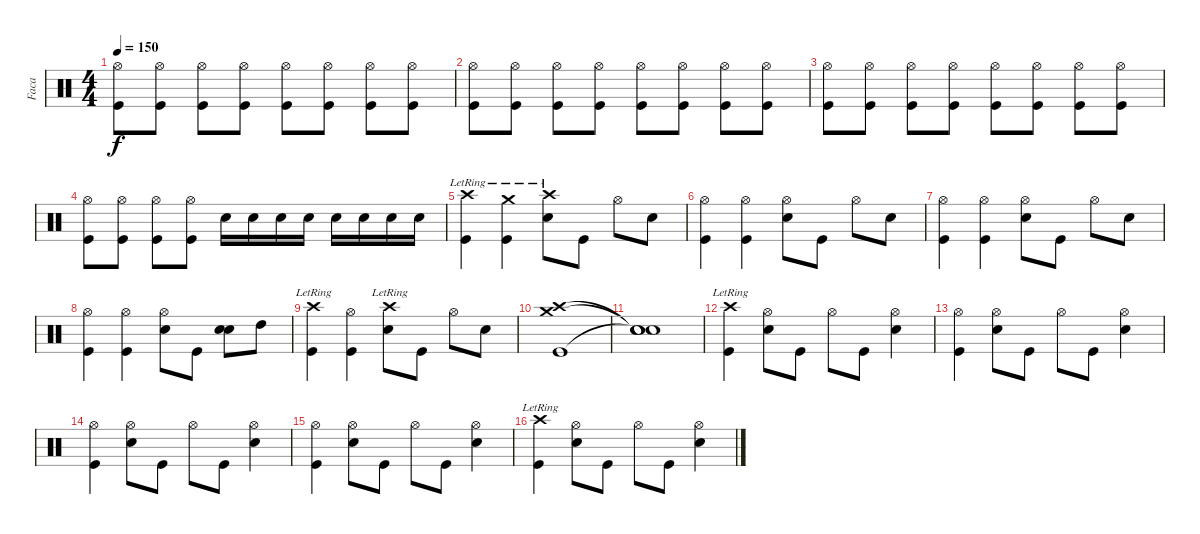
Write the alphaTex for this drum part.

\track ("Faca" "Faca") {instrument percussion}
\staff {score}
\articulation defaults
\ts (4 4)
\tempo 150
\clef neutral
\ks c
("Hi-Hat (open)" "Kick (hit)").8{dy f} ("Hi-Hat (open)" "Kick (hit)").8 ("Hi-Hat (open)" "Kick (hit)").8 ("Hi-Hat (open)" "Kick (hit)").8 ("Hi-Hat (open)" "Kick (hit)").8 ("Hi-Hat (open)" "Kick (hit)").8 ("Hi-Hat (open)" "Kick (hit)").8 ("Hi-Hat (open)" "Kick (hit)").8 |
("Hi-Hat (open)" "Kick (hit)").8 ("Hi-Hat (open)" "Kick (hit)").8 ("Hi-Hat (open)" "Kick (hit)").8 ("Hi-Hat (open)" "Kick (hit)").8 ("Hi-Hat (open)" "Kick (hit)").8 ("Hi-Hat (open)" "Kick (hit)").8 ("Hi-Hat (open)" "Kick (hit)").8 ("Hi-Hat (open)" "Kick (hit)").8 |
("Hi-Hat (open)" "Kick (hit)").8 ("Hi-Hat (open)" "Kick (hit)").8 ("Hi-Hat (open)" "Kick (hit)").8 ("Hi-Hat (open)" "Kick (hit)").8 ("Hi-Hat (open)" "Kick (hit)").8 ("Hi-Hat (open)" "Kick (hit)").8 ("Hi-Hat (open)" "Kick (hit)").8 ("Hi-Hat (open)" "Kick (hit)").8 |
("Hi-Hat (open)" "Kick (hit)").8 ("Hi-Hat (open)" "Kick (hit)").8 ("Hi-Hat (open)" "Kick (hit)").8 ("Hi-Hat (open)" "Kick (hit)").8 "Snare (hit) 2".16 "Snare (hit) 2".16 "Snare (hit) 2".16 "Snare (hit) 2".16 "Snare (hit) 2".16 "Snare (hit) 2".16 "Snare (hit) 2".16 "Snare (hit) 2".16 |
("Crash high (hit)"{lr} "Kick (hit)").4 ("Crash medium (hit)"{lr} "Kick (hit)").4 ("Crash high (hit)"{lr} "Snare (hit) 2").8 "Kick (hit)".8 "Hi-Hat (open)".8 "Snare (hit) 2".8 |
("Hi-Hat (open)" "Kick (hit)").4 ("Hi-Hat (open)" "Kick (hit)").4 ("Hi-Hat (open)" "Snare (hit) 2").8 "Kick (hit)".8 "Hi-Hat (open)".8 "Snare (hit) 2".8 |
("Hi-Hat (open)" "Kick (hit)").4 ("Hi-Hat (open)" "Kick (hit)").4 ("Hi-Hat (open)" "Snare (hit) 2").8 "Kick (hit)".8 "Hi-Hat (open)".8 "Snare (hit) 2".8 |
("Hi-Hat (open)" "Kick (hit)").4 ("Hi-Hat (open)" "Kick (hit)").4 ("Hi-Hat (open)" "Snare (hit) 2").8 "Kick (hit)".8 ("Snare (hit) 2" "Snare (hit) 2").8{bd 480} "High Tom (hit)".8 |
("Crash high (hit)"{lr} "Kick (hit)").4 ("Hi-Hat (open)" "Kick (hit)").4 ("Crash high (hit)"{lr} "Snare (hit) 2").8 "Kick (hit)".8 "Hi-Hat (open)".8 "Snare (hit) 2".8 |
("Crash medium (hit)" "Crash high (hit)" "Kick (hit)").1 |
("Snare (hit)"{t} "Snare (hit)"{t} "Snare (hit)"{t}).1 |
("Crash high (hit)"{lr} "Kick (hit)").4 ("Hi-Hat (open)" "Snare (hit) 2").8 "Kick (hit)".8 "Hi-Hat (open)".8 "Kick (hit)".8 ("Hi-Hat (open)" "Snare (hit) 2").4 |
("Hi-Hat (open)" "Kick (hit)").4 ("Hi-Hat (open)" "Snare (hit) 2").8 "Kick (hit)".8 "Hi-Hat (open)".8 "Kick (hit)".8 ("Hi-Hat (open)" "Snare (hit) 2").4 |
("Hi-Hat (open)" "Kick (hit)").4 ("Hi-Hat (open)" "Snare (hit) 2").8 "Kick (hit)".8 "Hi-Hat (open)".8 "Kick (hit)".8 ("Hi-Hat (open)" "Snare (hit) 2").4 |
("Hi-Hat (open)" "Kick (hit)").4 ("Hi-Hat (open)" "Snare (hit) 2").8 "Kick (hit)".8 "Hi-Hat (open)".8 "Kick (hit)".8 ("Hi-Hat (open)" "Snare (hit) 2").4 |
("Crash high (hit)"{lr} "Kick (hit)").4 ("Hi-Hat (open)" "Snare (hit) 2").8 "Kick (hit)".8 "Hi-Hat (open)".8 "Kick (hit)".8 ("Hi-Hat (open)" "Snare (hit) 2").4
